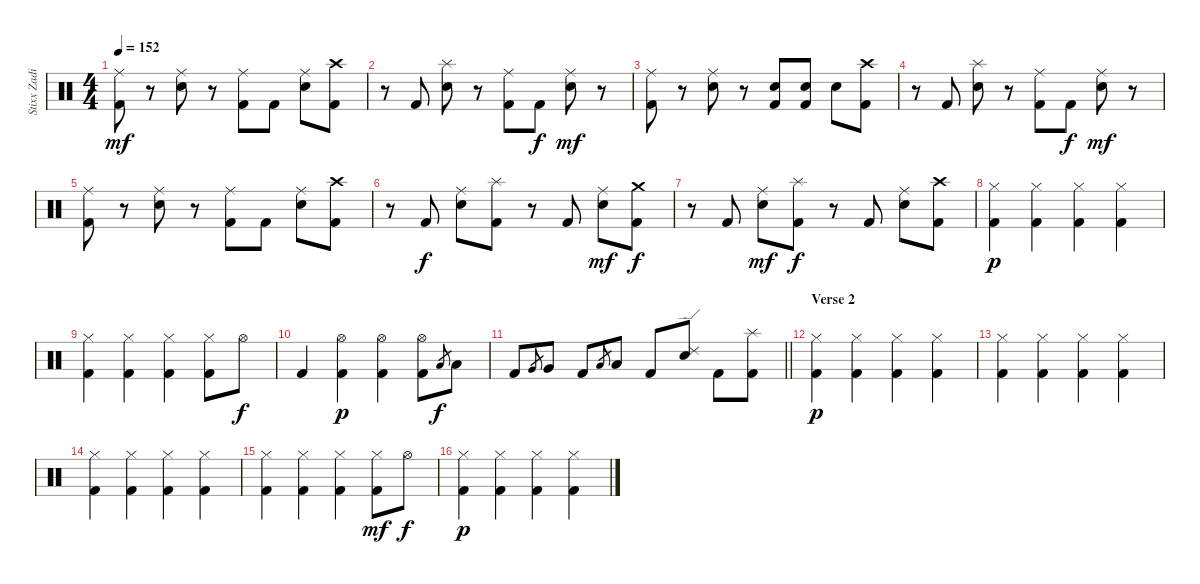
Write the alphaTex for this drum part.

\track ("Stixx Zadinia (Drums)" "Stixx Zadi") {instrument percussion}
\staff {score}
\articulation defaults
\ts (4 4)
\tempo 152
\clef neutral
\ks c
("Ride (middle)" "Kick (hit) 2").8{dy mf} r.8 ("Ride (middle)" "Snare (hit) 2").8 r.8 ("Ride (middle)" "Kick (hit) 2").8 "Kick (hit) 2".8 ("Ride (middle)" "Snare (hit) 2").8 ("Crash high (hit)" "Kick (hit) 2").8 |
r.8 "Kick (hit) 2".8 ("Splash (hit)" "Snare (hit) 2").8 r.8 ("Ride (middle)" "Kick (hit) 2").8 "Kick (hit) 2".8{dy f} ("Ride (middle)" "Snare (hit) 2").8{dy mf} r.8 |
("Ride (middle)" "Kick (hit) 2").8 r.8 ("Ride (middle)" "Snare (hit) 2").8 r.8 ("Snare (hit) 2" "Kick (hit) 2").8 ("Snare (hit) 2" "Kick (hit) 2").8 "Snare (hit) 2".8 ("Crash high (hit)" "Kick (hit) 2").8 |
r.8 "Kick (hit) 2".8 ("Splash (hit)" "Snare (hit) 2").8 r.8 ("Ride (middle)" "Kick (hit) 2").8 "Kick (hit) 2".8{dy f} ("Ride (middle)" "Snare (hit) 2").8{dy mf} r.8 |
("Ride (middle)" "Kick (hit) 2").8 r.8 ("Ride (middle)" "Snare (hit) 2").8 r.8 ("Ride (middle)" "Kick (hit) 2").8 "Kick (hit) 2".8 ("Ride (middle)" "Snare (hit) 2").8 ("Crash high (hit)" "Kick (hit) 2").8 |
r.8 "Kick (hit) 2".8{dy f} ("Ride (middle)" "Snare (hit) 2").8 ("Splash (hit)" "Kick (hit) 2").8 r.8 "Kick (hit) 2".8 ("Ride (middle)" "Snare (hit) 2").8{dy mf} ("Crash medium (hit)" "Kick (hit) 2").8{dy f} |
r.8 "Kick (hit) 2".8 ("Ride (middle)" "Snare (hit) 2").8{dy mf} ("Splash (hit)" "Kick (hit) 2").8{dy f} r.8 "Kick (hit) 2".8 ("Ride (middle)" "Snare (hit) 2").8 ("Crash high (hit)" "Kick (hit) 2").8 |
("Hi-Hat (closed)" "Kick (hit) 2").4{dy p} ("Hi-Hat (closed)" "Kick (hit) 2").4 ("Hi-Hat (closed)" "Kick (hit) 2").4 ("Hi-Hat (closed)" "Kick (hit) 2").4 |
("Hi-Hat (closed)" "Kick (hit) 2").4 ("Hi-Hat (closed)" "Kick (hit) 2").4 ("Hi-Hat (closed)" "Kick (hit) 2").4 ("Hi-Hat (closed)" "Kick (hit) 2").8 "Hi-Hat (open)".8{dy f} |
"Kick (hit) 2".4 ("Hi-Hat (open)" "Kick (hit) 2").4{dy p} ("Hi-Hat (open)" "Kick (hit) 2").4 ("Hi-Hat (open)" "Kick (hit) 2").8 "Low Tom (hit)".8{gr dy f} "Low Tom (hit)".8 |
\barLineRight lightlight "Kick (hit) 2".8 "Very Low Tom (hit)".8{gr} "Very Low Tom (hit)".8 "Kick (hit) 2".8 "Low Floor Tom (hit)".8{gr} "Low Floor Tom (hit)".8 "Kick (hit) 2".8
("Ride (edge) 2" "Snare (hit) 2").8 "Kick (hit) 2".8 ("Splash (hit)" "Kick (hit) 2").8 |
\section ("" "Verse 2")
("Hi-Hat (closed)" "Kick (hit) 2").4{dy p} ("Hi-Hat (closed)" "Kick (hit) 2").4 ("Hi-Hat (closed)" "Kick (hit) 2").4 ("Hi-Hat (closed)" "Kick (hit) 2").4 |
("Hi-Hat (closed)" "Kick (hit) 2").4 ("Hi-Hat (closed)" "Kick (hit) 2").4 ("Hi-Hat (closed)" "Kick (hit) 2").4 ("Hi-Hat (closed)" "Kick (hit) 2").4 |
("Hi-Hat (closed)" "Kick (hit) 2").4 ("Hi-Hat (closed)" "Kick (hit) 2").4 ("Hi-Hat (closed)" "Kick (hit) 2").4 ("Hi-Hat (closed)" "Kick (hit) 2").4 |
("Hi-Hat (closed)" "Kick (hit) 2").4 ("Hi-Hat (closed)" "Kick (hit) 2").4 ("Hi-Hat (closed)" "Kick (hit) 2").4 ("Hi-Hat (closed)" "Kick (hit) 2").8{dy mf} "Hi-Hat (open)".8{dy f} |
("Hi-Hat (closed)" "Kick (hit) 2").4{dy p} ("Hi-Hat (closed)" "Kick (hit) 2").4 ("Hi-Hat (closed)" "Kick (hit) 2").4 ("Hi-Hat (closed)" "Kick (hit) 2").4
